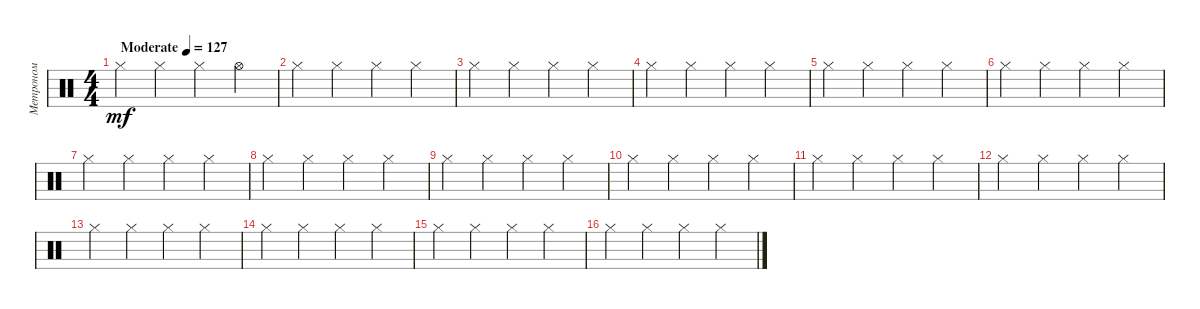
\track ("Метроном" "Метроном") {instrument percussion}
\staff {score}
\articulation defaults
\ts (4 4)
\tempo (127 "Moderate")
\clef neutral
\ks c "Hi-Hat (closed)".4{dy mf} "Hi-Hat (closed)".4 "Hi-Hat (closed)".4 "Hi-Hat (open)".4
|
"Hi-Hat (closed)".4 "Hi-Hat (closed)".4 "Hi-Hat (closed)".4 "Hi-Hat (closed)".4 |
"Hi-Hat (closed)".4 "Hi-Hat (closed)".4 "Hi-Hat (closed)".4 "Hi-Hat (closed)".4 |
"Hi-Hat (closed)".4 "Hi-Hat (closed)".4 "Hi-Hat (closed)".4 "Hi-Hat (closed)".4 |
"Hi-Hat (closed)".4 "Hi-Hat (closed)".4 "Hi-Hat (closed)".4 "Hi-Hat (closed)".4 |
"Hi-Hat (closed)".4 "Hi-Hat (closed)".4 "Hi-Hat (closed)".4 "Hi-Hat (closed)".4 |
"Hi-Hat (closed)".4 "Hi-Hat (closed)".4 "Hi-Hat (closed)".4 "Hi-Hat (closed)".4 |
"Hi-Hat (closed)".4 "Hi-Hat (closed)".4 "Hi-Hat (closed)".4 "Hi-Hat (closed)".4 |
"Hi-Hat (closed)".4 "Hi-Hat (closed)".4 "Hi-Hat (closed)".4 "Hi-Hat (closed)".4 |
"Hi-Hat (closed)".4 "Hi-Hat (closed)".4 "Hi-Hat (closed)".4 "Hi-Hat (closed)".4 |
"Hi-Hat (closed)".4 "Hi-Hat (closed)".4 "Hi-Hat (closed)".4 "Hi-Hat (closed)".4 |
"Hi-Hat (closed)".4 "Hi-Hat (closed)".4 "Hi-Hat (closed)".4 "Hi-Hat (closed)".4 |
"Hi-Hat (closed)".4 "Hi-Hat (closed)".4 "Hi-Hat (closed)".4 "Hi-Hat (closed)".4 |
"Hi-Hat (closed)".4 "Hi-Hat (closed)".4 "Hi-Hat (closed)".4 "Hi-Hat (closed)".4 |
"Hi-Hat (closed)".4 "Hi-Hat (closed)".4 "Hi-Hat (closed)".4 "Hi-Hat (closed)".4 |
"Hi-Hat (closed)".4 "Hi-Hat (closed)".4 "Hi-Hat (closed)".4 "Hi-Hat (closed)".4
